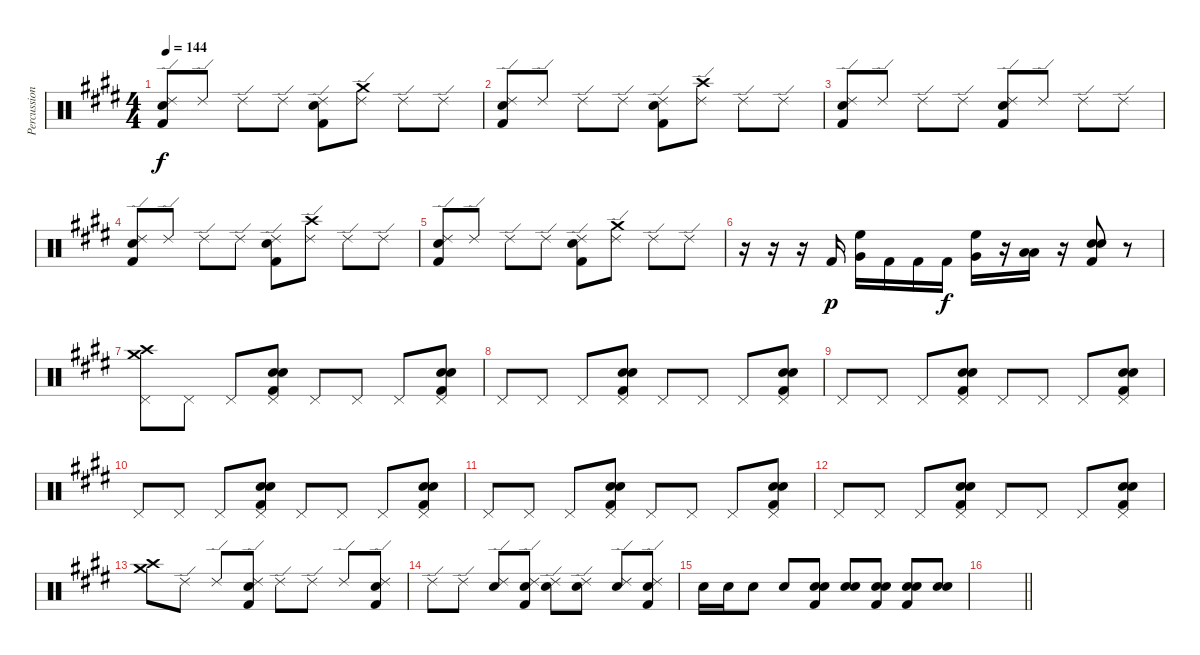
\track ("Percussion" "Percussion") {instrument percussion}
\staff {score}
\articulation defaults
\ts (4 4)
\tempo 144
\clef neutral
\ks c#minor
("Ride (edge) 2" "Snare (hit) 2" "Kick (hit) 2").8{dy f} "Ride (edge) 2".8 "Ride (edge) 2".8 "Ride (edge) 2".8 ("Ride (edge) 2" "Snare (hit) 2" "Kick (hit) 2").8 ("Ride (edge) 2" "Crash medium (hit)").8 "Ride (edge) 2".8 "Ride (edge) 2".8 |
("Ride (edge) 2" "Snare (hit) 2" "Kick (hit) 2").8 "Ride (edge) 2".8 "Ride (edge) 2".8 "Ride (edge) 2".8 ("Ride (edge) 2" "Snare (hit) 2" "Kick (hit) 2").8 ("Ride (edge) 2" "Crash high (hit)").8 "Ride (edge) 2".8 "Ride (edge) 2".8 |
\ks e
("Ride (edge) 2" "Snare (hit) 2" "Kick (hit) 2").8 "Ride (edge) 2".8 "Ride (edge) 2".8 "Ride (edge) 2".8 ("Ride (edge) 2" "Snare (hit) 2" "Kick (hit) 2").8 "Ride (edge) 2".8 "Ride (edge) 2".8 "Ride (edge) 2".8 |
\ks c#minor
("Ride (edge) 2" "Snare (hit) 2" "Kick (hit) 2").8 "Ride (edge) 2".8 "Ride (edge) 2".8 "Ride (edge) 2".8 ("Ride (edge) 2" "Snare (hit) 2" "Kick (hit) 2").8 ("Ride (edge) 2" "Crash high (hit)").8 "Ride (edge) 2".8 "Ride (edge) 2".8 |
("Ride (edge) 2" "Snare (hit) 2" "Kick (hit) 2").8 "Ride (edge) 2".8 "Ride (edge) 2".8 "Ride (edge) 2".8 ("Ride (edge) 2" "Snare (hit) 2" "Kick (hit) 2").8 ("Ride (edge) 2" "Crash medium (hit)").8 "Ride (edge) 2".8 "Ride (edge) 2".8 |
r.16 r.16 r.16 "Kick (hit) 2".16{dy p} ("Very Low Tom (hit)" "High Floor Tom (hit)").16 "Kick (hit) 2".16 "Kick (hit) 2".16 "Kick (hit) 2".16{dy f} ("Very Low Tom (hit)" "High Floor Tom (hit)").16 r.16 ("Low Floor Tom (hit)" "Low Tom (hit)").16 r.16 ("Snare (hit) 2" "Snare (hit) 2" "Kick (hit) 2").8 r.8 |
\ks e
("Pedal Hi-Hat (hit)" "Crash high (hit)" "Crash medium (hit)").8 "Pedal Hi-Hat (hit)".8 "Pedal Hi-Hat (hit)".8 ("Pedal Hi-Hat (hit)" "Snare (hit) 2" "Snare (hit) 2" "Kick (hit) 2").8 "Pedal Hi-Hat (hit)".8 "Pedal Hi-Hat (hit)".8 "Pedal Hi-Hat (hit)".8 ("Pedal Hi-Hat (hit)" "Snare (hit) 2" "Snare (hit) 2" "Kick (hit) 2").8 |
\ks c#minor "Pedal Hi-Hat (hit)".8 "Pedal Hi-Hat (hit)".8 "Pedal Hi-Hat (hit)".8
("Pedal Hi-Hat (hit)" "Snare (hit) 2" "Snare (hit) 2" "Kick (hit) 2").8 "Pedal Hi-Hat (hit)".8 "Pedal Hi-Hat (hit)".8 "Pedal Hi-Hat (hit)".8 ("Pedal Hi-Hat (hit)" "Snare (hit) 2" "Snare (hit) 2" "Kick (hit) 2").8 |
"Pedal Hi-Hat (hit)".8 "Pedal Hi-Hat (hit)".8 "Pedal Hi-Hat (hit)".8 ("Pedal Hi-Hat (hit)" "Snare (hit) 2" "Snare (hit) 2" "Kick (hit) 2").8 "Pedal Hi-Hat (hit)".8 "Pedal Hi-Hat (hit)".8 "Pedal Hi-Hat (hit)".8 ("Pedal Hi-Hat (hit)" "Snare (hit) 2" "Snare (hit) 2" "Kick (hit) 2").8 |
\ks e "Pedal Hi-Hat (hit)".8 "Pedal Hi-Hat (hit)".8 "Pedal Hi-Hat (hit)".8
("Pedal Hi-Hat (hit)" "Snare (hit) 2" "Snare (hit) 2" "Kick (hit) 2").8 "Pedal Hi-Hat (hit)".8 "Pedal Hi-Hat (hit)".8 "Pedal Hi-Hat (hit)".8 ("Pedal Hi-Hat (hit)" "Snare (hit) 2" "Snare (hit) 2" "Kick (hit) 2").8 |
\ks c#minor "Pedal Hi-Hat (hit)".8 "Pedal Hi-Hat (hit)".8 "Pedal Hi-Hat (hit)".8
("Pedal Hi-Hat (hit)" "Snare (hit) 2" "Snare (hit) 2" "Kick (hit) 2").8 "Pedal Hi-Hat (hit)".8 "Pedal Hi-Hat (hit)".8 "Pedal Hi-Hat (hit)".8 ("Pedal Hi-Hat (hit)" "Snare (hit) 2" "Snare (hit) 2" "Kick (hit) 2").8 |
"Pedal Hi-Hat (hit)".8 "Pedal Hi-Hat (hit)".8 "Pedal Hi-Hat (hit)".8 ("Pedal Hi-Hat (hit)" "Snare (hit) 2" "Snare (hit) 2" "Kick (hit) 2").8 "Pedal Hi-Hat (hit)".8 "Pedal Hi-Hat (hit)".8 "Pedal Hi-Hat (hit)".8 ("Pedal Hi-Hat (hit)" "Snare (hit) 2" "Snare (hit) 2" "Kick (hit) 2").8 |
\ks e
("Crash high (hit)" "Crash medium (hit)").8 "Ride (edge) 2".8 "Ride (edge) 2".8 ("Ride (edge) 2" "Snare (hit) 2" "Kick (hit) 2").8 "Ride (edge) 2".8 "Ride (edge) 2".8 "Ride (edge) 2".8 ("Ride (edge) 2" "Snare (hit) 2" "Kick (hit) 2").8 |
\ks c#minor "Ride (edge) 2".8 "Ride (edge) 2".8
("Ride (edge) 2" "Snare (hit) 2").8 ("Ride (edge) 2" "Snare (hit) 2" "Kick (hit) 2").8 ("Ride (edge) 2" "Snare (hit) 2").8 ("Ride (edge) 2" "Snare (hit) 2").8 ("Ride (edge) 2" "Snare (hit) 2").8 ("Ride (edge) 2" "Snare (hit) 2" "Kick (hit) 2").8 |
"Snare (hit) 2".16 "Snare (hit) 2".16 "Snare (hit) 2".8 "Snare (hit) 2".8 ("Snare (hit) 2" "Snare (hit) 2" "Kick (hit) 2").8 ("Snare (hit) 2" "Snare (hit) 2").8 ("Snare (hit) 2" "Snare (hit) 2" "Kick (hit) 2").8 ("Snare (hit) 2" "Snare (hit) 2" "Kick (hit) 2").8 ("Snare (hit) 2" "Snare (hit) 2").8 |
\barLineRight lightlight
\ks e
